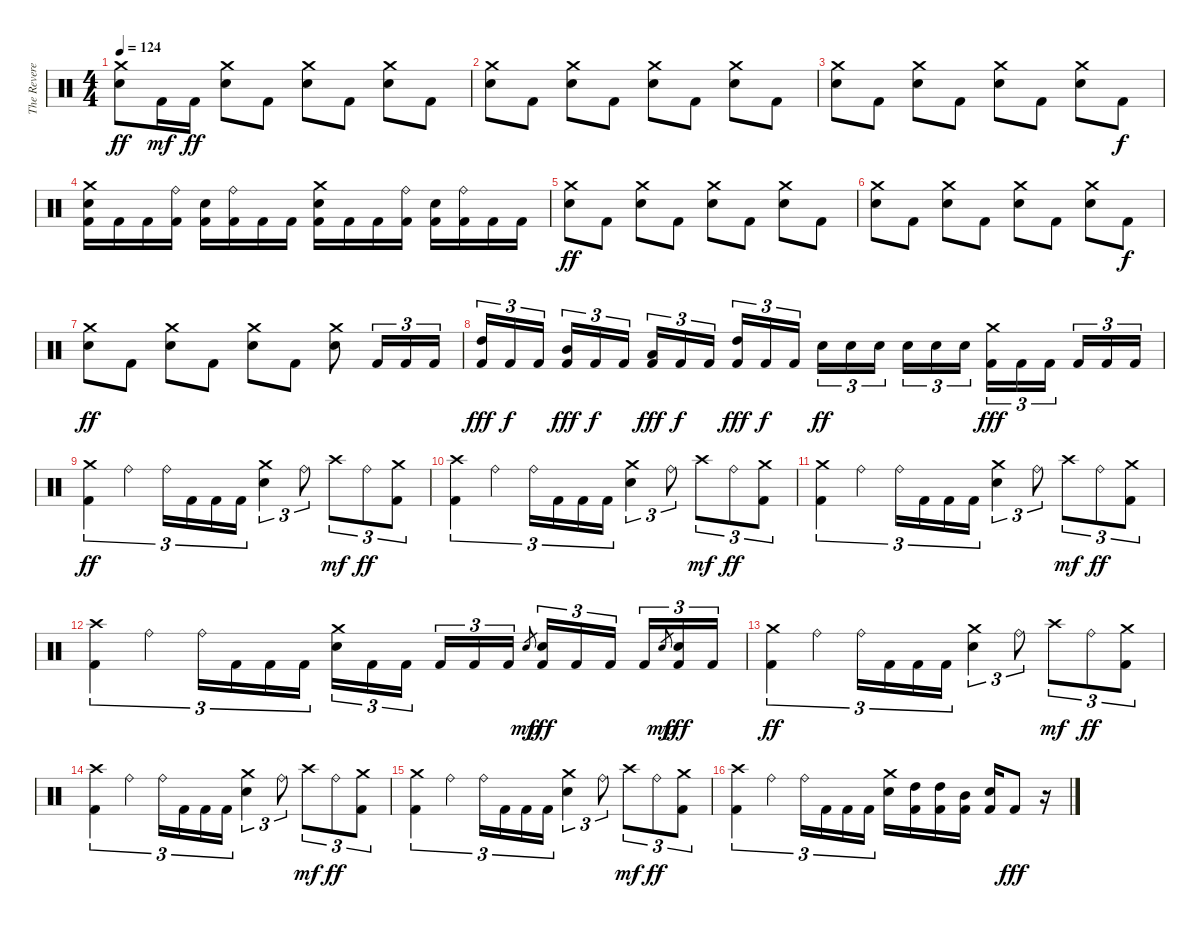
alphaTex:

\track ("The Reverend" "The Revere") {instrument percussion}
\staff {score}
\articulation defaults
\ts (4 4)
\tempo 124
\clef neutral
\ks c
("Crash medium (hit)" "Electric Snare (hit)").8{dy ff} "Kick (hit) 2".16{dy mf} "Kick (hit) 2".16{dy ff} ("Crash medium (hit)" "Electric Snare (hit)").8 "Kick (hit) 2".8 ("Crash medium (hit)" "Electric Snare (hit)").8 "Kick (hit) 2".8 ("Crash medium (hit)" "Electric Snare (hit)").8 "Kick (hit) 2".8 |
("Crash medium (hit)" "Electric Snare (hit)").8 "Kick (hit) 2".8 ("Crash medium (hit)" "Electric Snare (hit)").8 "Kick (hit) 2".8 ("Crash medium (hit)" "Electric Snare (hit)").8 "Kick (hit) 2".8 ("Crash medium (hit)" "Electric Snare (hit)").8 "Kick (hit) 2".8 |
("Crash medium (hit)" "Electric Snare (hit)").8 "Kick (hit) 2".8 ("Crash medium (hit)" "Electric Snare (hit)").8 "Kick (hit) 2".8 ("Crash medium (hit)" "Electric Snare (hit)").8 "Kick (hit) 2".8 ("Crash medium (hit)" "Electric Snare (hit)").8 "Kick (hit) 2".8{dy f} |
("Crash medium (hit)" "Electric Snare (hit)" "Kick (hit) 2").16 "Kick (hit) 2".16 "Kick (hit) 2".16 ("Ride (bell)" "Kick (hit) 2").16 ("Electric Snare (hit)" "Kick (hit) 2").16 ("Ride (bell)" "Kick (hit) 2").16 "Kick (hit) 2".16 "Kick (hit) 2".16 ("Crash medium (hit)" "Electric Snare (hit)" "Kick (hit) 2").16 "Kick (hit) 2".16 "Kick (hit) 2".16 ("Ride (bell)" "Kick (hit) 2").16 ("Electric Snare (hit)" "Kick (hit) 2").16 ("Ride (bell)" "Kick (hit) 2").16 "Kick (hit) 2".16 "Kick (hit) 2".16 |
("Crash medium (hit)" "Electric Snare (hit)").8{dy ff} "Kick (hit) 2".8 ("Crash medium (hit)" "Electric Snare (hit)").8 "Kick (hit) 2".8 ("Crash medium (hit)" "Electric Snare (hit)").8 "Kick (hit) 2".8 ("Crash medium (hit)" "Electric Snare (hit)").8 "Kick (hit) 2".8 |
("Crash medium (hit)" "Electric Snare (hit)").8 "Kick (hit) 2".8 ("Crash medium (hit)" "Electric Snare (hit)").8 "Kick (hit) 2".8 ("Crash medium (hit)" "Electric Snare (hit)").8 "Kick (hit) 2".8 ("Crash medium (hit)" "Electric Snare (hit)").8 "Kick (hit) 2".8{dy f} |
("Crash medium (hit)" "Electric Snare (hit)").8{dy ff} "Kick (hit) 2".8 ("Crash medium (hit)" "Electric Snare (hit)").8 "Kick (hit) 2".8 ("Crash medium (hit)" "Electric Snare (hit)").8 "Kick (hit) 2".8 ("Crash medium (hit)" "Electric Snare (hit)").8 "Kick (hit) 2".16{tu (3 2)} "Kick (hit) 2".16{tu (3 2)} "Kick (hit) 2".16{tu (3 2)} |
("High Tom (hit)" "Kick (hit) 2").16{tu (3 2) dy fff} "Kick (hit) 2".16{tu (3 2) dy f} "Kick (hit) 2".16{tu (3 2) beam splitsecondary} ("Mid Tom (hit)" "Kick (hit) 2").16{tu (3 2) dy fff} "Kick (hit) 2".16{tu (3 2) dy f} "Kick (hit) 2".16{tu (3 2)} ("Low Tom (hit)" "Kick (hit) 2").16{tu (3 2) dy fff} "Kick (hit) 2".16{tu (3 2) dy f} "Kick (hit) 2".16{tu (3 2) beam splitsecondary} ("High Tom (hit)" "Kick (hit) 2").16{tu (3 2) dy fff} "Kick (hit) 2".16{tu (3 2) dy f} "Kick (hit) 2".16{tu (3 2)} "Electric Snare (hit)".16{tu (3 2) dy ff} "Electric Snare (hit)".16{tu (3 2)} "Electric Snare (hit)".16{tu (3 2) beam splitsecondary} "Electric Snare (hit)".16{tu (3 2)} "Electric Snare (hit)".16{tu (3 2)} "Electric Snare (hit)".16{tu (3 2)} ("Crash medium (hit)" "Kick (hit) 2").16{tu (3 2) dy fff} "Kick (hit) 2".16{tu (3 2)} "Kick (hit) 2".16{tu (3 2) beam splitsecondary} "Kick (hit) 2".16{tu (3 2)} "Kick (hit) 2".16{tu (3 2)} "Kick (hit) 2".16{tu (3 2)} |
("Crash medium (hit)" "Kick (hit) 2").4{tu (3 2) dy ff} "Ride (bell)".4{tu (3 2)} "Ride (bell)".16{tu (3 2)} "Kick (hit) 2".16{tu (3 2)} "Kick (hit) 2".16{tu (3 2)} "Kick (hit) 2".16{tu (3 2)} ("Crash medium (hit)" "Electric Snare (hit)").4{tu (3 2)} "Ride (bell)".8{tu (3 2)} "Crash high (hit)".8{tu (3 2) dy mf} "Ride (bell)".8{tu (3 2) dy ff} ("Crash medium (hit)" "Kick (hit) 2").8{tu (3 2)} |
("Crash high (hit)" "Kick (hit) 2").4{tu (3 2)} "Ride (bell)".4{tu (3 2)} "Ride (bell)".16{tu (3 2)} "Kick (hit) 2".16{tu (3 2)} "Kick (hit) 2".16{tu (3 2)} "Kick (hit) 2".16{tu (3 2)} ("Crash medium (hit)" "Electric Snare (hit)").4{tu (3 2)} "Ride (bell)".8{tu (3 2)} "Crash high (hit)".8{tu (3 2) dy mf} "Ride (bell)".8{tu (3 2) dy ff} ("Crash medium (hit)" "Kick (hit) 2").8{tu (3 2)} |
("Crash medium (hit)" "Kick (hit) 2").4{tu (3 2)} "Ride (bell)".4{tu (3 2)} "Ride (bell)".16{tu (3 2)} "Kick (hit) 2".16{tu (3 2)} "Kick (hit) 2".16{tu (3 2)} "Kick (hit) 2".16{tu (3 2)} ("Crash medium (hit)" "Electric Snare (hit)").4{tu (3 2)} "Ride (bell)".8{tu (3 2)} "Crash high (hit)".8{tu (3 2) dy mf} "Ride (bell)".8{tu (3 2) dy ff} ("Crash medium (hit)" "Kick (hit) 2").8{tu (3 2)} |
("Crash high (hit)" "Kick (hit) 2").4{tu (3 2)} "Ride (bell)".4{tu (3 2)} "Ride (bell)".16{tu (3 2)} "Kick (hit) 2".16{tu (3 2)} "Kick (hit) 2".16{tu (3 2)} "Kick (hit) 2".16{tu (3 2)} ("Crash medium (hit)" "Electric Snare (hit)").16{tu (3 2)} "Kick (hit) 2".16{tu (3 2)} "Kick (hit) 2".16{tu (3 2) beam splitsecondary} "Kick (hit) 2".16{tu (3 2)} "Kick (hit) 2".16{tu (3 2)} "Kick (hit) 2".16{tu (3 2)} "Electric Snare (hit)".8{gr dy mp} ("Electric Snare (hit)" "Kick (hit) 2").16{tu (3 2) dy fff} "Kick (hit) 2".16{tu (3 2)} "Kick (hit) 2".16{tu (3 2) beam splitsecondary} "Kick (hit) 2".16{tu (3 2)} "Electric Snare (hit)".8{gr dy mp} ("Electric Snare (hit)" "Kick (hit) 2").16{tu (3 2) dy fff} "Kick (hit) 2".16{tu (3 2)} |
("Crash medium (hit)" "Kick (hit) 2").4{tu (3 2) dy ff} "Ride (bell)".4{tu (3 2)} "Ride (bell)".16{tu (3 2)} "Kick (hit) 2".16{tu (3 2)} "Kick (hit) 2".16{tu (3 2)} "Kick (hit) 2".16{tu (3 2)} ("Crash medium (hit)" "Electric Snare (hit)").4{tu (3 2)} "Ride (bell)".8{tu (3 2)} "Crash high (hit)".8{tu (3 2) dy mf} "Ride (bell)".8{tu (3 2) dy ff} ("Crash medium (hit)" "Kick (hit) 2").8{tu (3 2)} |
("Crash high (hit)" "Kick (hit) 2").4{tu (3 2)} "Ride (bell)".4{tu (3 2)} "Ride (bell)".16{tu (3 2)} "Kick (hit) 2".16{tu (3 2)} "Kick (hit) 2".16{tu (3 2)} "Kick (hit) 2".16{tu (3 2)} ("Crash medium (hit)" "Electric Snare (hit)").4{tu (3 2)} "Ride (bell)".8{tu (3 2)} "Crash high (hit)".8{tu (3 2) dy mf} "Ride (bell)".8{tu (3 2) dy ff} ("Crash medium (hit)" "Kick (hit) 2").8{tu (3 2)} |
("Crash medium (hit)" "Kick (hit) 2").4{tu (3 2)} "Ride (bell)".4{tu (3 2)} "Ride (bell)".16{tu (3 2)} "Kick (hit) 2".16{tu (3 2)} "Kick (hit) 2".16{tu (3 2)} "Kick (hit) 2".16{tu (3 2)} ("Crash medium (hit)" "Electric Snare (hit)").4{tu (3 2)} "Ride (bell)".8{tu (3 2)} "Crash high (hit)".8{tu (3 2) dy mf} "Ride (bell)".8{tu (3 2) dy ff} ("Crash medium (hit)" "Kick (hit) 2").8{tu (3 2)} |
("Crash high (hit)" "Kick (hit) 2").4{tu (3 2)} "Ride (bell)".4{tu (3 2)} "Ride (bell)".16{tu (3 2)} "Kick (hit) 2".16{tu (3 2)} "Kick (hit) 2".16{tu (3 2)} "Kick (hit) 2".16{tu (3 2)} ("Crash medium (hit)" "Electric Snare (hit)").16 ("High Tom (hit)" "Kick (hit) 2").16 ("High Tom (hit)" "Kick (hit) 2").16 ("Mid Tom (hit)" "Kick (hit) 2").16 ("Electric Snare (hit)" "Kick (hit) 2").16 "Kick (hit) 2".8{dy fff} r.16
